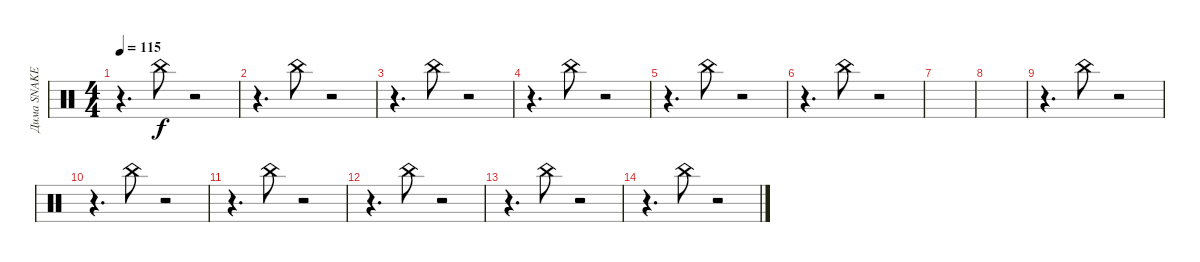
\track ("Дима SNAKE Хакимов" "Дима SNAKE") {instrument percussion}
\staff {score}
\articulation defaults
\ts (4 4)
\tempo 115
\clef neutral
\ks c
r.4{d dy f} "China (hit)".8 r.2 |
r.4{d} "China (hit)".8 r.2 |
r.4{d} "China (hit)".8 r.2 |
r.4{d} "China (hit)".8 r.2 |
r.4{d} "China (hit)".8 r.2 |
r.4{d} "China (hit)".8 r.2 |
|
|
r.4{d} "China (hit)".8 r.2 |
r.4{d} "China (hit)".8 r.2 |
r.4{d} "China (hit)".8 r.2 |
r.4{d} "China (hit)".8 r.2 |
r.4{d} "China (hit)".8 r.2 |
r.4{d} "China (hit)".8 r.2
